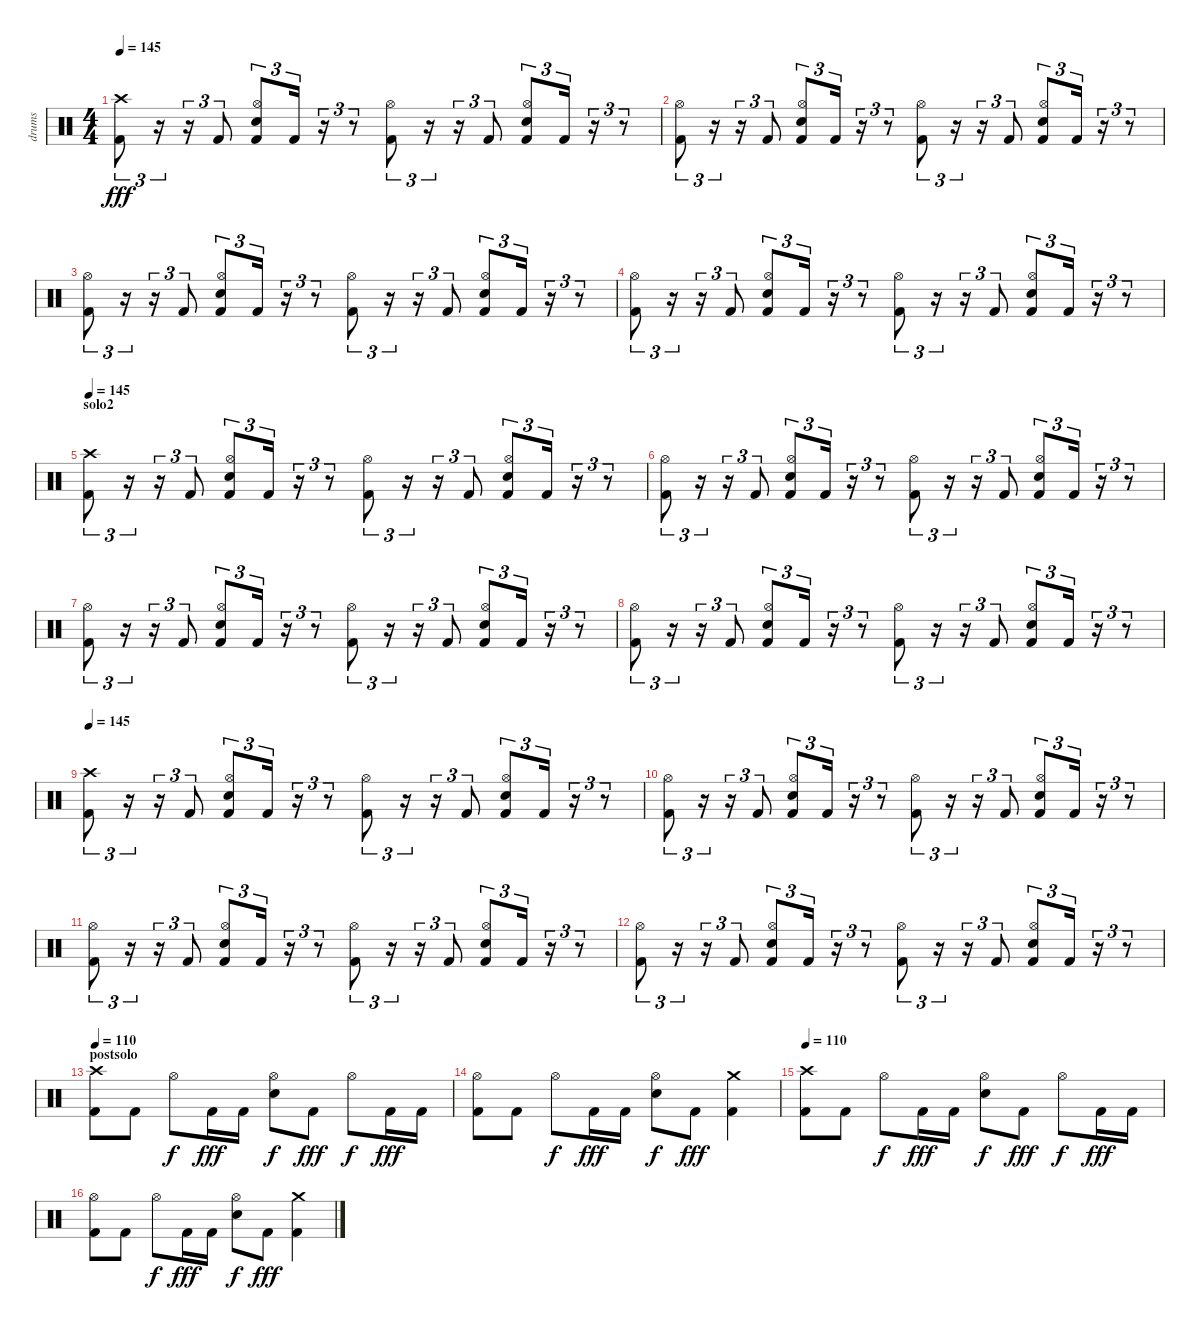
\track ("drums" "drums") {instrument percussion}
\staff {score}
\articulation defaults
\ts (4 4)
\tempo 145
\clef neutral
\ks c
("Crash high (hit)" "Kick (hit) 2").8{tu (3 2) dy fff} r.16{tu (3 2)} r.16{tu (3 2)} "Kick (hit) 2".8{tu (3 2)} ("Hi-Hat (open)" "Snare (hit) 2" "Kick (hit) 2").8{tu (3 2)} "Kick (hit) 2".16{tu (3 2)} r.16{tu (3 2)} r.8{tu (3 2)} ("Hi-Hat (open)" "Kick (hit) 2").8{tu (3 2)} r.16{tu (3 2)} r.16{tu (3 2)} "Kick (hit) 2".8{tu (3 2)} ("Hi-Hat (open)" "Snare (hit) 2" "Kick (hit) 2").8{tu (3 2)} "Kick (hit) 2".16{tu (3 2)} r.16{tu (3 2)} r.8{tu (3 2)} |
("Hi-Hat (open)" "Kick (hit) 2").8{tu (3 2)} r.16{tu (3 2)} r.16{tu (3 2)} "Kick (hit) 2".8{tu (3 2)} ("Hi-Hat (open)" "Snare (hit) 2" "Kick (hit) 2").8{tu (3 2)} "Kick (hit) 2".16{tu (3 2)} r.16{tu (3 2)} r.8{tu (3 2)} ("Hi-Hat (open)" "Kick (hit) 2").8{tu (3 2)} r.16{tu (3 2)} r.16{tu (3 2)} "Kick (hit) 2".8{tu (3 2)} ("Hi-Hat (open)" "Snare (hit) 2" "Kick (hit) 2").8{tu (3 2)} "Kick (hit) 2".16{tu (3 2)} r.16{tu (3 2)} r.8{tu (3 2)} |
("Hi-Hat (open)" "Kick (hit) 2").8{tu (3 2)} r.16{tu (3 2)} r.16{tu (3 2)} "Kick (hit) 2".8{tu (3 2)} ("Hi-Hat (open)" "Snare (hit) 2" "Kick (hit) 2").8{tu (3 2)} "Kick (hit) 2".16{tu (3 2)} r.16{tu (3 2)} r.8{tu (3 2)} ("Hi-Hat (open)" "Kick (hit) 2").8{tu (3 2)} r.16{tu (3 2)} r.16{tu (3 2)} "Kick (hit) 2".8{tu (3 2)} ("Hi-Hat (open)" "Snare (hit) 2" "Kick (hit) 2").8{tu (3 2)} "Kick (hit) 2".16{tu (3 2)} r.16{tu (3 2)} r.8{tu (3 2)} |
("Hi-Hat (open)" "Kick (hit) 2").8{tu (3 2)} r.16{tu (3 2)} r.16{tu (3 2)} "Kick (hit) 2".8{tu (3 2)} ("Hi-Hat (open)" "Snare (hit) 2" "Kick (hit) 2").8{tu (3 2)} "Kick (hit) 2".16{tu (3 2)} r.16{tu (3 2)} r.8{tu (3 2)} ("Hi-Hat (open)" "Kick (hit) 2").8{tu (3 2)} r.16{tu (3 2)} r.16{tu (3 2)} "Kick (hit) 2".8{tu (3 2)} ("Hi-Hat (open)" "Snare (hit) 2" "Kick (hit) 2").8{tu (3 2)} "Kick (hit) 2".16{tu (3 2)} r.16{tu (3 2)} r.8{tu (3 2)} |
\section ("" "solo2")
\tempo 145
("Crash high (hit)" "Kick (hit) 2").8{tu (3 2)} r.16{tu (3 2)} r.16{tu (3 2)} "Kick (hit) 2".8{tu (3 2)} ("Hi-Hat (open)" "Snare (hit) 2" "Kick (hit) 2").8{tu (3 2)} "Kick (hit) 2".16{tu (3 2)} r.16{tu (3 2)} r.8{tu (3 2)} ("Hi-Hat (open)" "Kick (hit) 2").8{tu (3 2)} r.16{tu (3 2)} r.16{tu (3 2)} "Kick (hit) 2".8{tu (3 2)} ("Hi-Hat (open)" "Snare (hit) 2" "Kick (hit) 2").8{tu (3 2)} "Kick (hit) 2".16{tu (3 2)} r.16{tu (3 2)} r.8{tu (3 2)} |
("Hi-Hat (open)" "Kick (hit) 2").8{tu (3 2)} r.16{tu (3 2)} r.16{tu (3 2)} "Kick (hit) 2".8{tu (3 2)} ("Hi-Hat (open)" "Snare (hit) 2" "Kick (hit) 2").8{tu (3 2)} "Kick (hit) 2".16{tu (3 2)} r.16{tu (3 2)} r.8{tu (3 2)} ("Hi-Hat (open)" "Kick (hit) 2").8{tu (3 2)} r.16{tu (3 2)} r.16{tu (3 2)} "Kick (hit) 2".8{tu (3 2)} ("Hi-Hat (open)" "Snare (hit) 2" "Kick (hit) 2").8{tu (3 2)} "Kick (hit) 2".16{tu (3 2)} r.16{tu (3 2)} r.8{tu (3 2)} |
("Hi-Hat (open)" "Kick (hit) 2").8{tu (3 2)} r.16{tu (3 2)} r.16{tu (3 2)} "Kick (hit) 2".8{tu (3 2)} ("Hi-Hat (open)" "Snare (hit) 2" "Kick (hit) 2").8{tu (3 2)} "Kick (hit) 2".16{tu (3 2)} r.16{tu (3 2)} r.8{tu (3 2)} ("Hi-Hat (open)" "Kick (hit) 2").8{tu (3 2)} r.16{tu (3 2)} r.16{tu (3 2)} "Kick (hit) 2".8{tu (3 2)} ("Hi-Hat (open)" "Snare (hit) 2" "Kick (hit) 2").8{tu (3 2)} "Kick (hit) 2".16{tu (3 2)} r.16{tu (3 2)} r.8{tu (3 2)} |
("Hi-Hat (open)" "Kick (hit) 2").8{tu (3 2)} r.16{tu (3 2)} r.16{tu (3 2)} "Kick (hit) 2".8{tu (3 2)} ("Hi-Hat (open)" "Snare (hit) 2" "Kick (hit) 2").8{tu (3 2)} "Kick (hit) 2".16{tu (3 2)} r.16{tu (3 2)} r.8{tu (3 2)} ("Hi-Hat (open)" "Kick (hit) 2").8{tu (3 2)} r.16{tu (3 2)} r.16{tu (3 2)} "Kick (hit) 2".8{tu (3 2)} ("Hi-Hat (open)" "Snare (hit) 2" "Kick (hit) 2").8{tu (3 2)} "Kick (hit) 2".16{tu (3 2)} r.16{tu (3 2)} r.8{tu (3 2)} |
\tempo 145
("Crash high (hit)" "Kick (hit) 2").8{tu (3 2)} r.16{tu (3 2)} r.16{tu (3 2)} "Kick (hit) 2".8{tu (3 2)} ("Hi-Hat (open)" "Snare (hit) 2" "Kick (hit) 2").8{tu (3 2)} "Kick (hit) 2".16{tu (3 2)} r.16{tu (3 2)} r.8{tu (3 2)} ("Hi-Hat (open)" "Kick (hit) 2").8{tu (3 2)} r.16{tu (3 2)} r.16{tu (3 2)} "Kick (hit) 2".8{tu (3 2)} ("Hi-Hat (open)" "Snare (hit) 2" "Kick (hit) 2").8{tu (3 2)} "Kick (hit) 2".16{tu (3 2)} r.16{tu (3 2)} r.8{tu (3 2)} |
("Hi-Hat (open)" "Kick (hit) 2").8{tu (3 2)} r.16{tu (3 2)} r.16{tu (3 2)} "Kick (hit) 2".8{tu (3 2)} ("Hi-Hat (open)" "Snare (hit) 2" "Kick (hit) 2").8{tu (3 2)} "Kick (hit) 2".16{tu (3 2)} r.16{tu (3 2)} r.8{tu (3 2)} ("Hi-Hat (open)" "Kick (hit) 2").8{tu (3 2)} r.16{tu (3 2)} r.16{tu (3 2)} "Kick (hit) 2".8{tu (3 2)} ("Hi-Hat (open)" "Snare (hit) 2" "Kick (hit) 2").8{tu (3 2)} "Kick (hit) 2".16{tu (3 2)} r.16{tu (3 2)} r.8{tu (3 2)} |
("Hi-Hat (open)" "Kick (hit) 2").8{tu (3 2)} r.16{tu (3 2)} r.16{tu (3 2)} "Kick (hit) 2".8{tu (3 2)} ("Hi-Hat (open)" "Snare (hit) 2" "Kick (hit) 2").8{tu (3 2)} "Kick (hit) 2".16{tu (3 2)} r.16{tu (3 2)} r.8{tu (3 2)} ("Hi-Hat (open)" "Kick (hit) 2").8{tu (3 2)} r.16{tu (3 2)} r.16{tu (3 2)} "Kick (hit) 2".8{tu (3 2)} ("Hi-Hat (open)" "Snare (hit) 2" "Kick (hit) 2").8{tu (3 2)} "Kick (hit) 2".16{tu (3 2)} r.16{tu (3 2)} r.8{tu (3 2)} |
("Hi-Hat (open)" "Kick (hit) 2").8{tu (3 2)} r.16{tu (3 2)} r.16{tu (3 2)} "Kick (hit) 2".8{tu (3 2)} ("Hi-Hat (open)" "Snare (hit) 2" "Kick (hit) 2").8{tu (3 2)} "Kick (hit) 2".16{tu (3 2)} r.16{tu (3 2)} r.8{tu (3 2)} ("Hi-Hat (open)" "Kick (hit) 2").8{tu (3 2)} r.16{tu (3 2)} r.16{tu (3 2)} "Kick (hit) 2".8{tu (3 2)} ("Hi-Hat (open)" "Snare (hit) 2" "Kick (hit) 2").8{tu (3 2)} "Kick (hit) 2".16{tu (3 2)} r.16{tu (3 2)} r.8{tu (3 2)} |
\section ("" "postsolo")
\tempo 110
("Crash high (hit)" "Kick (hit) 2").8 "Kick (hit) 2".8 "Hi-Hat (open)".8{dy f} "Kick (hit) 2".16{dy fff} "Kick (hit) 2".16 ("Hi-Hat (open)" "Snare (hit) 2").8{dy f} "Kick (hit) 2".8{dy fff} "Hi-Hat (open)".8{dy f} "Kick (hit) 2".16{dy fff} "Kick (hit) 2".16 |
("Hi-Hat (open)" "Kick (hit) 2").8 "Kick (hit) 2".8 "Hi-Hat (open)".8{dy f} "Kick (hit) 2".16{dy fff} "Kick (hit) 2".16 ("Hi-Hat (open)" "Snare (hit) 2").8{dy f} "Kick (hit) 2".8{dy fff} ("Crash medium (hit)" "Kick (hit) 2").4 |
\tempo 110
("Crash high (hit)" "Kick (hit) 2").8 "Kick (hit) 2".8 "Hi-Hat (open)".8{dy f} "Kick (hit) 2".16{dy fff} "Kick (hit) 2".16 ("Hi-Hat (open)" "Snare (hit) 2").8{dy f} "Kick (hit) 2".8{dy fff} "Hi-Hat (open)".8{dy f} "Kick (hit) 2".16{dy fff} "Kick (hit) 2".16 |
("Hi-Hat (open)" "Kick (hit) 2").8 "Kick (hit) 2".8 "Hi-Hat (open)".8{dy f} "Kick (hit) 2".16{dy fff} "Kick (hit) 2".16 ("Hi-Hat (open)" "Snare (hit) 2").8{dy f} "Kick (hit) 2".8{dy fff} ("Crash medium (hit)" "Kick (hit) 2").4
